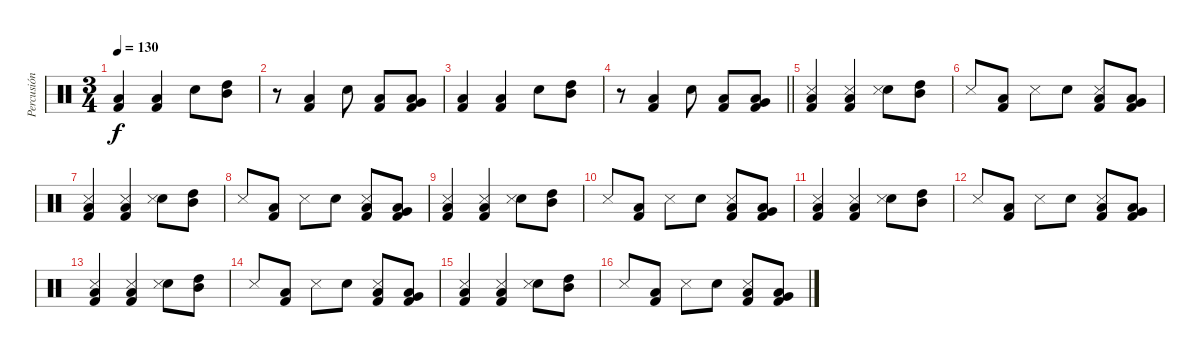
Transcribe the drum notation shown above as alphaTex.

\track ("Percusión" "Percusión") {instrument percussion}
\staff {score}
\articulation defaults
\ts (3 4)
\tempo 130
\clef neutral
\ks c
("Kick (hit) 2" "Low Floor Tom (hit)").4{dy f} ("Kick (hit) 2" "Low Floor Tom (hit)").4 "Snare (hit) 2".8 ("Mid Tom (hit)" "High Tom (hit)").8 |
r.8 ("Kick (hit) 2" "Low Floor Tom (hit)").4 "Snare (hit) 2".8 ("Kick (hit) 2" "Low Floor Tom (hit)").8 ("Kick (hit) 2" "Very Low Tom (hit)" "Low Floor Tom (hit)").8 |
("Kick (hit) 2" "Low Floor Tom (hit)").4 ("Kick (hit) 2" "Low Floor Tom (hit)").4 "Snare (hit) 2".8 ("Mid Tom (hit)" "High Tom (hit)").8 |
\barLineRight lightlight
r.8 ("Kick (hit) 2" "Low Floor Tom (hit)").4 "Snare (hit) 2".8 ("Kick (hit) 2" "Low Floor Tom (hit)").8 ("Kick (hit) 2" "Very Low Tom (hit)" "Low Floor Tom (hit)").8 |
("Kick (hit) 2" "Low Floor Tom (hit)" "Metronome (hit)").4 ("Kick (hit) 2" "Low Floor Tom (hit)" "Metronome (hit)").4 ("Snare (hit) 2" "Metronome (hit)").8 ("Mid Tom (hit)" "High Tom (hit)").8 |
"Metronome (hit)".8 ("Kick (hit) 2" "Low Floor Tom (hit)").8 "Metronome (hit)".8 "Snare (hit) 2".8 ("Kick (hit) 2" "Low Floor Tom (hit)" "Metronome (hit)").8 ("Kick (hit) 2" "Very Low Tom (hit)" "Low Floor Tom (hit)").8 |
("Kick (hit) 2" "Low Floor Tom (hit)" "Metronome (hit)").4 ("Kick (hit) 2" "Low Floor Tom (hit)" "Metronome (hit)").4 ("Snare (hit) 2" "Metronome (hit)").8 ("Mid Tom (hit)" "High Tom (hit)").8 |
"Metronome (hit)".8 ("Kick (hit) 2" "Low Floor Tom (hit)").8 "Metronome (hit)".8 "Snare (hit) 2".8 ("Kick (hit) 2" "Low Floor Tom (hit)" "Metronome (hit)").8 ("Kick (hit) 2" "Very Low Tom (hit)" "Low Floor Tom (hit)").8 |
("Kick (hit) 2" "Low Floor Tom (hit)" "Metronome (hit)").4 ("Kick (hit) 2" "Low Floor Tom (hit)" "Metronome (hit)").4 ("Snare (hit) 2" "Metronome (hit)").8 ("Mid Tom (hit)" "High Tom (hit)").8 |
"Metronome (hit)".8 ("Kick (hit) 2" "Low Floor Tom (hit)").8 "Metronome (hit)".8 "Snare (hit) 2".8 ("Kick (hit) 2" "Low Floor Tom (hit)" "Metronome (hit)").8 ("Kick (hit) 2" "Very Low Tom (hit)" "Low Floor Tom (hit)").8 |
("Kick (hit) 2" "Low Floor Tom (hit)" "Metronome (hit)").4 ("Kick (hit) 2" "Low Floor Tom (hit)" "Metronome (hit)").4 ("Snare (hit) 2" "Metronome (hit)").8 ("Mid Tom (hit)" "High Tom (hit)").8 |
"Metronome (hit)".8 ("Kick (hit) 2" "Low Floor Tom (hit)").8 "Metronome (hit)".8 "Snare (hit) 2".8 ("Kick (hit) 2" "Low Floor Tom (hit)" "Metronome (hit)").8 ("Kick (hit) 2" "Very Low Tom (hit)" "Low Floor Tom (hit)").8 |
("Kick (hit) 2" "Low Floor Tom (hit)" "Metronome (hit)").4 ("Kick (hit) 2" "Low Floor Tom (hit)" "Metronome (hit)").4 ("Snare (hit) 2" "Metronome (hit)").8 ("Mid Tom (hit)" "High Tom (hit)").8 |
"Metronome (hit)".8 ("Kick (hit) 2" "Low Floor Tom (hit)").8 "Metronome (hit)".8 "Snare (hit) 2".8 ("Kick (hit) 2" "Low Floor Tom (hit)" "Metronome (hit)").8 ("Kick (hit) 2" "Very Low Tom (hit)" "Low Floor Tom (hit)").8 |
("Kick (hit) 2" "Low Floor Tom (hit)" "Metronome (hit)").4 ("Kick (hit) 2" "Low Floor Tom (hit)" "Metronome (hit)").4 ("Snare (hit) 2" "Metronome (hit)").8 ("Mid Tom (hit)" "High Tom (hit)").8 |
"Metronome (hit)".8 ("Kick (hit) 2" "Low Floor Tom (hit)").8 "Metronome (hit)".8 "Snare (hit) 2".8 ("Kick (hit) 2" "Low Floor Tom (hit)" "Metronome (hit)").8 ("Kick (hit) 2" "Very Low Tom (hit)" "Low Floor Tom (hit)").8
